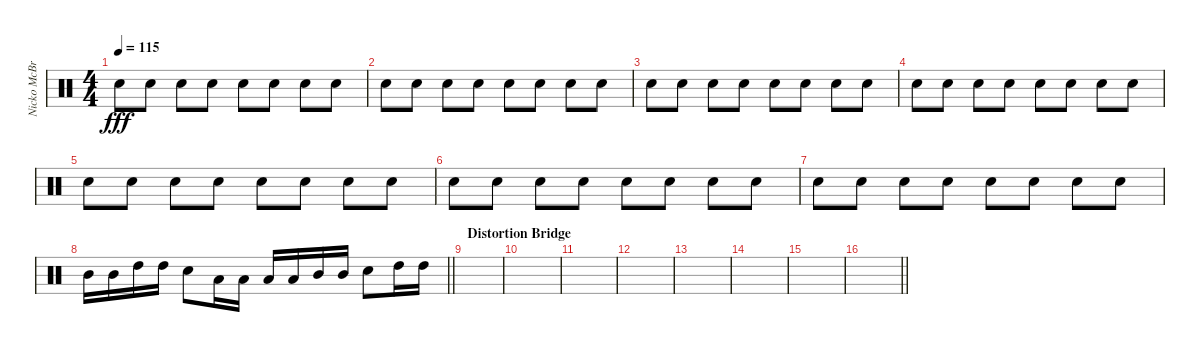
\track ("Nicko McBrain" "Nicko McBr") {instrument percussion}
\staff {score}
\articulation defaults
\ts (4 4)
\tempo 115
\clef neutral
\ks c "Electric Snare (hit)".8{dy fff volume 3} "Electric Snare (hit)".8 "Electric Snare (hit)".8 "Electric Snare (hit)".8 "Electric Snare (hit)".8 "Electric Snare (hit)".8 "Electric Snare (hit)".8 "Electric Snare (hit)".8
|
"Electric Snare (hit)".8{volume 16} "Electric Snare (hit)".8 "Electric Snare (hit)".8 "Electric Snare (hit)".8 "Electric Snare (hit)".8 "Electric Snare (hit)".8 "Electric Snare (hit)".8 "Electric Snare (hit)".8 |
"Electric Snare (hit)".8 "Electric Snare (hit)".8 "Electric Snare (hit)".8 "Electric Snare (hit)".8 "Electric Snare (hit)".8 "Electric Snare (hit)".8 "Electric Snare (hit)".8 "Electric Snare (hit)".8 |
"Electric Snare (hit)".8 "Electric Snare (hit)".8 "Electric Snare (hit)".8 "Electric Snare (hit)".8 "Electric Snare (hit)".8 "Electric Snare (hit)".8 "Electric Snare (hit)".8 "Electric Snare (hit)".8 |
"Electric Snare (hit)".8 "Electric Snare (hit)".8 "Electric Snare (hit)".8 "Electric Snare (hit)".8 "Electric Snare (hit)".8 "Electric Snare (hit)".8 "Electric Snare (hit)".8 "Electric Snare (hit)".8 |
"Electric Snare (hit)".8 "Electric Snare (hit)".8 "Electric Snare (hit)".8 "Electric Snare (hit)".8 "Electric Snare (hit)".8 "Electric Snare (hit)".8 "Electric Snare (hit)".8 "Electric Snare (hit)".8 |
"Electric Snare (hit)".8 "Electric Snare (hit)".8 "Electric Snare (hit)".8 "Electric Snare (hit)".8 "Electric Snare (hit)".8 "Electric Snare (hit)".8 "Electric Snare (hit)".8 "Electric Snare (hit)".8{volume 16} |
\barLineRight lightlight "Mid Tom (hit)".16 "Mid Tom (hit)".16 "High Tom (hit)".16 "High Tom (hit)".16 "Electric Snare (hit)".8 "Low Floor Tom (hit)".16 "Low Floor Tom (hit)".16 "Low Tom (hit)".16 "Low Tom (hit)".16 "Mid Tom (hit)".16 "Mid Tom (hit)".16 "Electric Snare (hit)".8 "High Tom (hit)".16 "High Tom (hit)".16
|
\section ("" "Distortion Bridge")
|
|
|
|
|
|
|
\barLineRight lightlight
